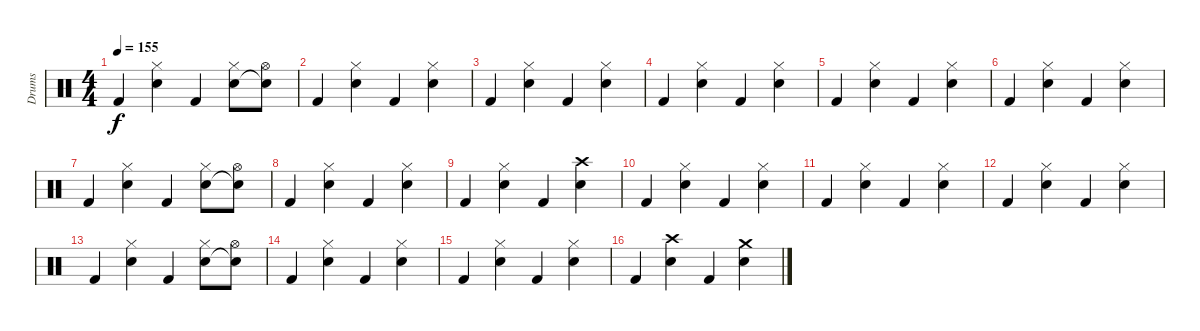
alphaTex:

\track ("Drums" "Drums") {instrument percussion}
\staff {score}
\articulation defaults
\ts (4 4)
\tempo 155
\clef neutral
\ks c "Kick (hit) 2".4{dy f}
("Electric Snare (hit)" "Hi-Hat (closed)").4 "Kick (hit) 2".4 ("Electric Snare (hit)" "Hi-Hat (closed)").8 ("Snare (hit)"{t} "Hi-Hat (open)").8 |
"Kick (hit) 2".4 ("Electric Snare (hit)" "Hi-Hat (closed)").4 "Kick (hit) 2".4 ("Electric Snare (hit)" "Hi-Hat (closed)").4 |
"Kick (hit) 2".4 ("Electric Snare (hit)" "Hi-Hat (closed)").4 "Kick (hit) 2".4 ("Electric Snare (hit)" "Hi-Hat (closed)").4 |
"Kick (hit) 2".4 ("Electric Snare (hit)" "Hi-Hat (closed)").4 "Kick (hit) 2".4 ("Electric Snare (hit)" "Hi-Hat (closed)").4 |
"Kick (hit) 2".4 ("Electric Snare (hit)" "Hi-Hat (closed)").4 "Kick (hit) 2".4 ("Electric Snare (hit)" "Hi-Hat (closed)").4 |
"Kick (hit) 2".4 ("Electric Snare (hit)" "Hi-Hat (closed)").4 "Kick (hit) 2".4 ("Electric Snare (hit)" "Hi-Hat (closed)").4 |
"Kick (hit) 2".4 ("Electric Snare (hit)" "Hi-Hat (closed)").4 "Kick (hit) 2".4 ("Electric Snare (hit)" "Hi-Hat (closed)").8 ("Snare (hit)"{t} "Hi-Hat (open)").8 |
"Kick (hit) 2".4 ("Electric Snare (hit)" "Hi-Hat (closed)").4 "Kick (hit) 2".4 ("Electric Snare (hit)" "Hi-Hat (closed)").4 |
"Kick (hit) 2".4 ("Electric Snare (hit)" "Hi-Hat (closed)").4 "Kick (hit) 2".4 ("Electric Snare (hit)" "Crash high (hit)").4 |
"Kick (hit) 2".4 ("Electric Snare (hit)" "Hi-Hat (closed)").4 "Kick (hit) 2".4 ("Electric Snare (hit)" "Hi-Hat (closed)").4 |
"Kick (hit) 2".4 ("Electric Snare (hit)" "Hi-Hat (closed)").4 "Kick (hit) 2".4 ("Electric Snare (hit)" "Hi-Hat (closed)").4 |
"Kick (hit) 2".4 ("Electric Snare (hit)" "Hi-Hat (closed)").4 "Kick (hit) 2".4 ("Electric Snare (hit)" "Hi-Hat (closed)").4 |
"Kick (hit) 2".4 ("Electric Snare (hit)" "Hi-Hat (closed)").4 "Kick (hit) 2".4 ("Electric Snare (hit)" "Hi-Hat (closed)").8 ("Snare (hit)"{t} "Hi-Hat (open)").8 |
"Kick (hit) 2".4 ("Electric Snare (hit)" "Hi-Hat (closed)").4 "Kick (hit) 2".4 ("Electric Snare (hit)" "Hi-Hat (closed)").4 |
"Kick (hit) 2".4 ("Electric Snare (hit)" "Hi-Hat (closed)").4 "Kick (hit) 2".4 ("Electric Snare (hit)" "Hi-Hat (closed)").4 |
"Kick (hit) 2".4 ("Electric Snare (hit)" "Crash high (hit)").4 "Kick (hit) 2".4 ("Electric Snare (hit)" "Crash medium (hit)").4
